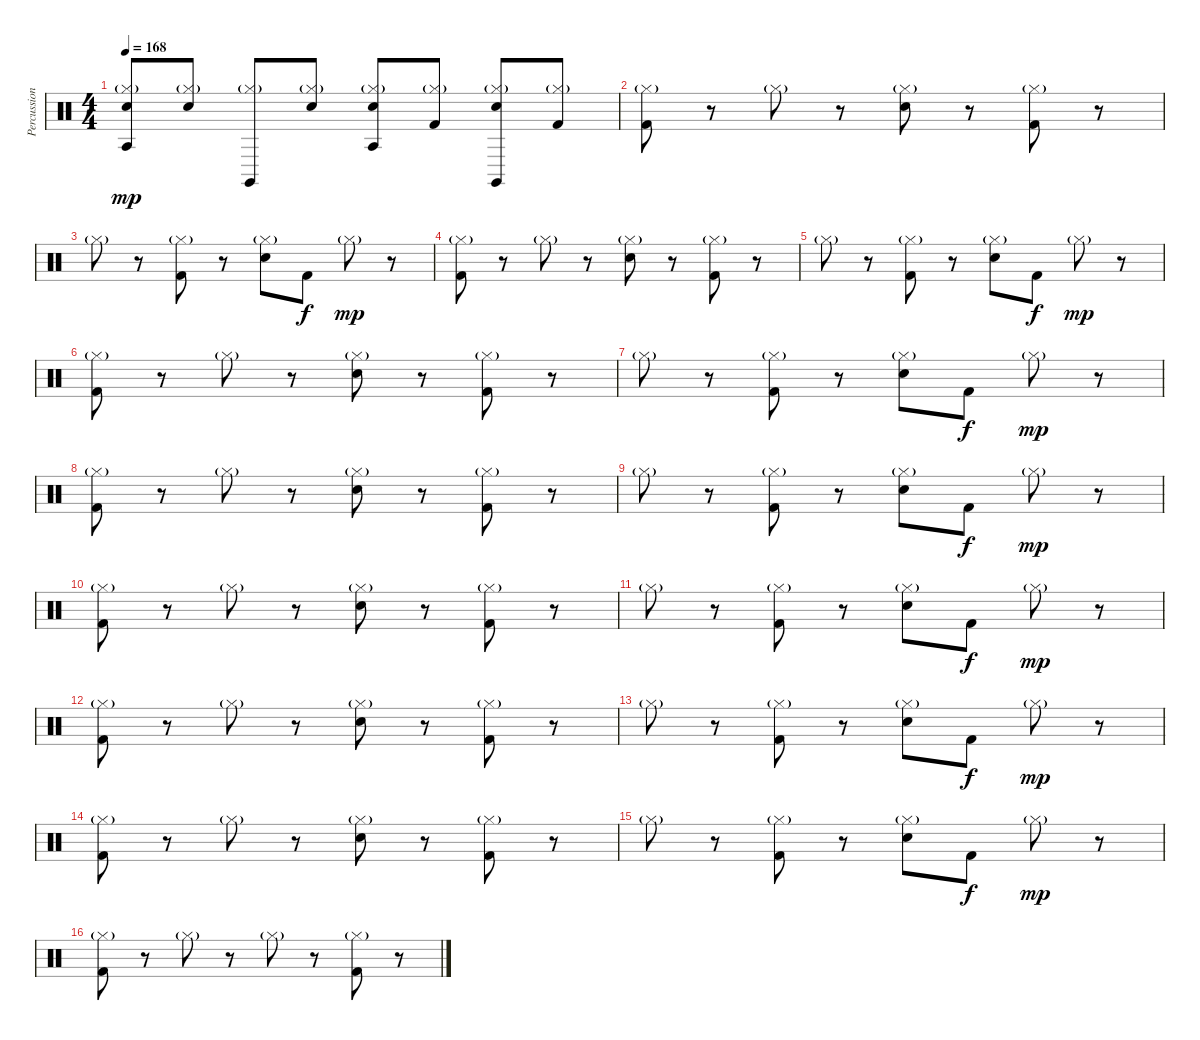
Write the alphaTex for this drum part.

\track ("Percussion" "Percussion") {instrument percussion}
\staff {score}
\articulation defaults
\ts (4 4)
\tempo 168
\clef neutral
\ks c
("Agogo tow (hit)" "Hi-Hat (closed)"{g} "Hand Clap (hit)").8{dy mp} ("Hi-Hat (closed)"{g} "Hand Clap (hit)").8 ("Claves (hit)" "Hi-Hat (closed)"{g}).8 ("Hi-Hat (closed)"{g} "Hand Clap (hit)").8 ("Agogo tow (hit)" "Hi-Hat (closed)"{g} "Hand Clap (hit)").8 ("Hi-Hat (closed)"{g} "Kick (hit) 2").8 ("Claves (hit)" "Hi-Hat (closed)"{g} "Hand Clap (hit)").8 ("Hi-Hat (closed)"{g} "Kick (hit) 2").8 |
("Hi-Hat (closed)"{g} "Kick (hit) 2").8 r.8 "Hi-Hat (closed)"{g}.8 r.8 ("Hi-Hat (closed)"{g} "Hand Clap (hit)").8 r.8 ("Hi-Hat (closed)"{g} "Kick (hit) 2").8 r.8 |
"Hi-Hat (closed)"{g}.8 r.8 ("Hi-Hat (closed)"{g} "Kick (hit) 2").8 r.8 ("Hi-Hat (closed)"{g} "Hand Clap (hit)").8 "Kick (hit) 2".8{dy f} "Hi-Hat (closed)"{g}.8{dy mp} r.8 |
("Hi-Hat (closed)"{g} "Kick (hit) 2").8 r.8 "Hi-Hat (closed)"{g}.8 r.8 ("Hi-Hat (closed)"{g} "Hand Clap (hit)").8 r.8 ("Hi-Hat (closed)"{g} "Kick (hit) 2").8 r.8 |
"Hi-Hat (closed)"{g}.8 r.8 ("Hi-Hat (closed)"{g} "Kick (hit) 2").8 r.8 ("Hi-Hat (closed)"{g} "Hand Clap (hit)").8 "Kick (hit) 2".8{dy f} "Hi-Hat (closed)"{g}.8{dy mp} r.8 |
("Hi-Hat (closed)"{g} "Kick (hit) 2").8 r.8 "Hi-Hat (closed)"{g}.8 r.8 ("Hi-Hat (closed)"{g} "Hand Clap (hit)").8 r.8 ("Hi-Hat (closed)"{g} "Kick (hit) 2").8 r.8 |
"Hi-Hat (closed)"{g}.8 r.8 ("Hi-Hat (closed)"{g} "Kick (hit) 2").8 r.8 ("Hi-Hat (closed)"{g} "Hand Clap (hit)").8 "Kick (hit) 2".8{dy f} "Hi-Hat (closed)"{g}.8{dy mp} r.8 |
("Hi-Hat (closed)"{g} "Kick (hit) 2").8 r.8 "Hi-Hat (closed)"{g}.8 r.8 ("Hi-Hat (closed)"{g} "Hand Clap (hit)").8 r.8 ("Hi-Hat (closed)"{g} "Kick (hit) 2").8 r.8 |
"Hi-Hat (closed)"{g}.8 r.8 ("Hi-Hat (closed)"{g} "Kick (hit) 2").8 r.8 ("Hi-Hat (closed)"{g} "Hand Clap (hit)").8 "Kick (hit) 2".8{dy f} "Hi-Hat (closed)"{g}.8{dy mp} r.8 |
("Hi-Hat (closed)"{g} "Kick (hit) 2").8 r.8 "Hi-Hat (closed)"{g}.8 r.8 ("Hi-Hat (closed)"{g} "Hand Clap (hit)").8 r.8 ("Hi-Hat (closed)"{g} "Kick (hit) 2").8 r.8 |
"Hi-Hat (closed)"{g}.8 r.8 ("Hi-Hat (closed)"{g} "Kick (hit) 2").8 r.8 ("Hi-Hat (closed)"{g} "Hand Clap (hit)").8 "Kick (hit) 2".8{dy f} "Hi-Hat (closed)"{g}.8{dy mp} r.8 |
("Hi-Hat (closed)"{g} "Kick (hit) 2").8 r.8 "Hi-Hat (closed)"{g}.8 r.8 ("Hi-Hat (closed)"{g} "Hand Clap (hit)").8 r.8 ("Hi-Hat (closed)"{g} "Kick (hit) 2").8 r.8 |
"Hi-Hat (closed)"{g}.8 r.8 ("Hi-Hat (closed)"{g} "Kick (hit) 2").8 r.8 ("Hi-Hat (closed)"{g} "Hand Clap (hit)").8 "Kick (hit) 2".8{dy f} "Hi-Hat (closed)"{g}.8{dy mp} r.8 |
("Hi-Hat (closed)"{g} "Kick (hit) 2").8 r.8 "Hi-Hat (closed)"{g}.8 r.8 ("Hi-Hat (closed)"{g} "Hand Clap (hit)").8 r.8 ("Hi-Hat (closed)"{g} "Kick (hit) 2").8 r.8 |
"Hi-Hat (closed)"{g}.8 r.8 ("Hi-Hat (closed)"{g} "Kick (hit) 2").8 r.8 ("Hi-Hat (closed)"{g} "Hand Clap (hit)").8 "Kick (hit) 2".8{dy f} "Hi-Hat (closed)"{g}.8{dy mp} r.8 |
("Hi-Hat (closed)"{g} "Kick (hit) 2").8 r.8 "Hi-Hat (closed)"{g}.8 r.8 "Hi-Hat (closed)"{g}.8 r.8 ("Hi-Hat (closed)"{g} "Kick (hit) 2").8 r.8
